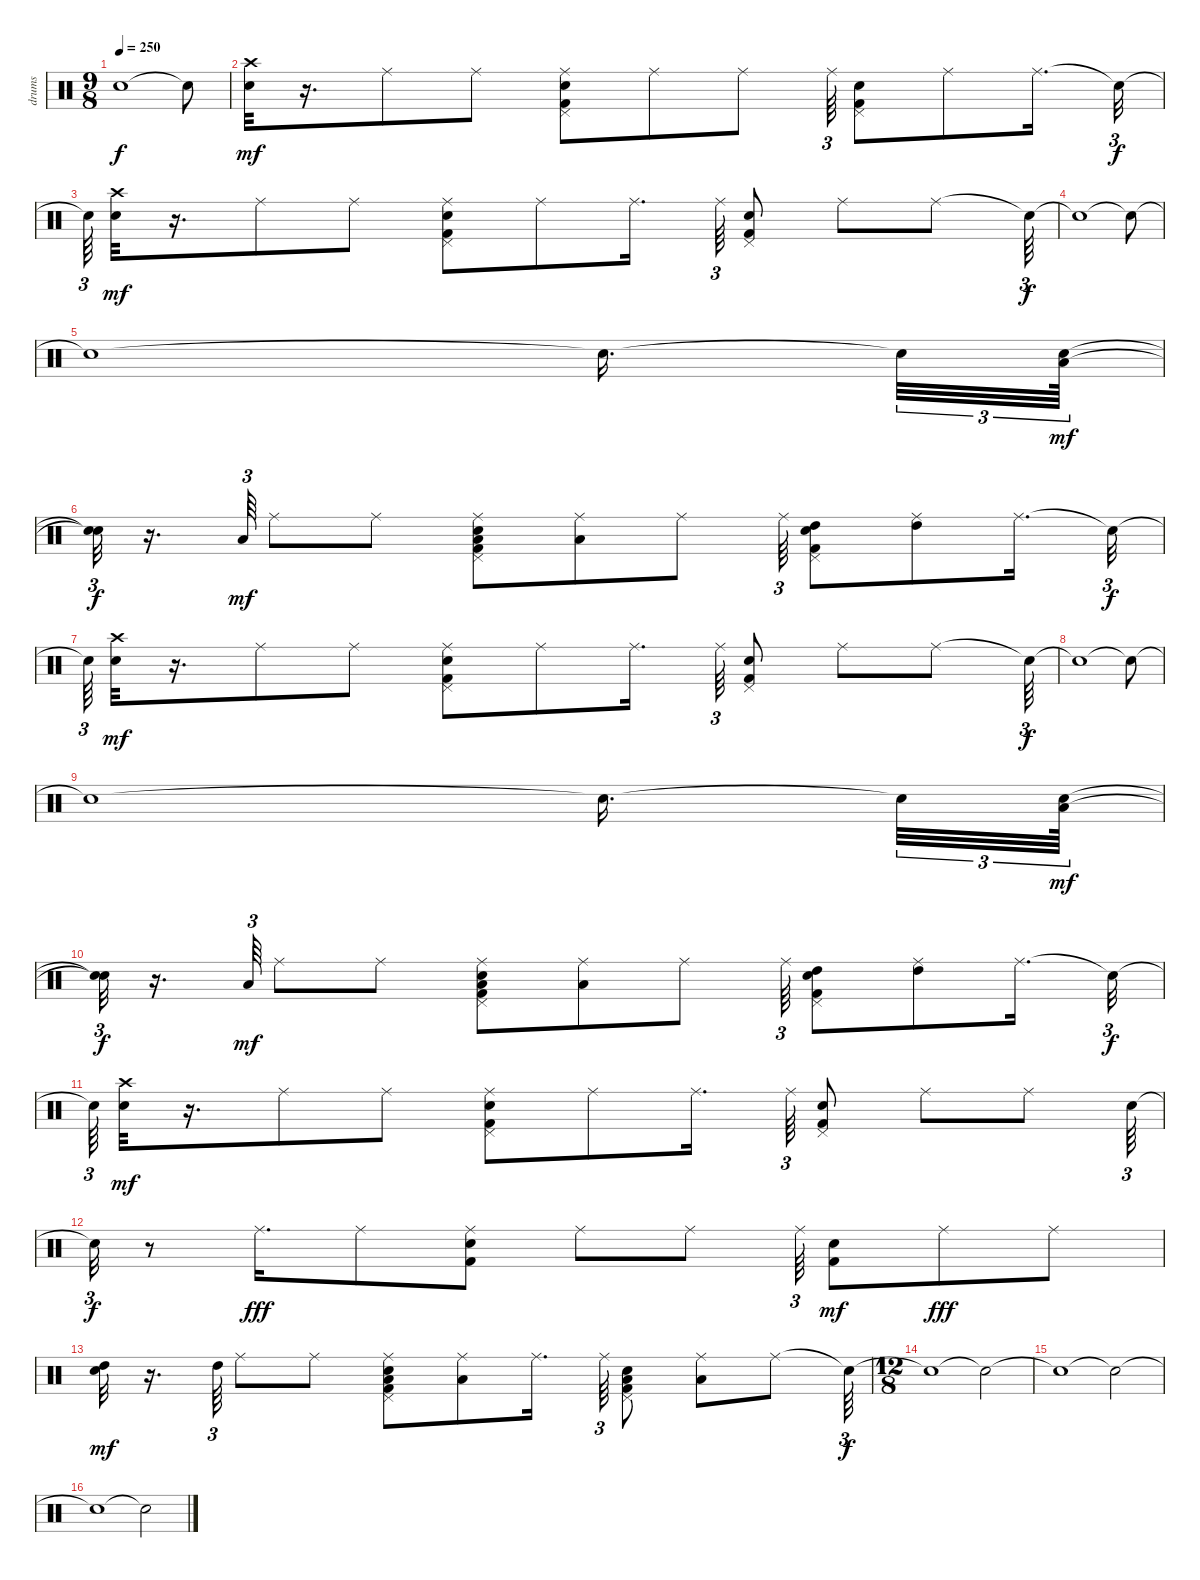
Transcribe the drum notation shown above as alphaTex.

\track ("drums               " "drums     ") {instrument percussion}
\staff {score}
\articulation defaults
\ts (9 8)
\tempo 250
\clef neutral
\ks c "Snare (hit)"{t}.1{dy f} "Snare (hit)"{t}.8
|
("Snare (hit) 2" "Crash high (hit)").32{dy mf} r.16{d} "Ride (middle)".8 "Ride (middle)".8 ("Pedal Hi-Hat (hit)" "Snare (hit) 2" "Kick (hit) 2" "Ride (middle)").8 "Ride (middle)".8 "Ride (middle)".8 "Ride (middle)".64{tu (3 2)} ("Snare (hit) 2" "Kick (hit) 2" "Pedal Hi-Hat (hit)").8 "Ride (middle)".8 "Ride (middle)".16{d} "Snare (hit)"{t}.32{tu (3 2) dy f} |
"Snare (hit)"{t}.64{tu (3 2)} ("Snare (hit) 2" "Crash high (hit)").32{dy mf} r.16{d} "Ride (middle)".8 "Ride (middle)".8 ("Pedal Hi-Hat (hit)" "Snare (hit) 2" "Kick (hit) 2" "Ride (middle)").8 "Ride (middle)".8 "Ride (middle)".16{d} "Ride (middle)".64{tu (3 2)} ("Snare (hit) 2" "Kick (hit) 2" "Pedal Hi-Hat (hit)").8 "Ride (middle)".8 "Ride (middle)".8 "Snare (hit)"{t}.64{tu (3 2) dy f} |
"Snare (hit)"{t}.1 "Snare (hit)"{t}.8 |
"Snare (hit)"{t}.1 "Snare (hit)"{t}.16{d} "Snare (hit)"{t}.32{tu (3 2)} ("Snare (hit) 2" "Low Floor Tom (hit)").64{tu (3 2) dy mf} |
("Snare (hit)"{t} "Snare (hit)"{t}).32{tu (3 2) dy f} r.16{d} "Low Floor Tom (hit)".64{tu (3 2) dy mf} "Ride (middle)".8 "Ride (middle)".8 ("Pedal Hi-Hat (hit)" "Snare (hit) 2" "Kick (hit) 2" "Low Tom (hit)" "Ride (middle)").8 ("Low Tom (hit)" "Ride (middle)").8 "Ride (middle)".8 "Ride (middle)".64{tu (3 2)} ("Snare (hit) 2" "Kick (hit) 2" "Pedal Hi-Hat (hit)" "High Tom (hit)").8 ("High Tom (hit)" "Ride (middle)").8 "Ride (middle)".16{d} "Snare (hit)"{t}.32{tu (3 2) dy f} |
"Snare (hit)"{t}.64{tu (3 2)} ("Snare (hit) 2" "Crash high (hit)").32{dy mf} r.16{d} "Ride (middle)".8 "Ride (middle)".8 ("Pedal Hi-Hat (hit)" "Snare (hit) 2" "Kick (hit) 2" "Ride (middle)").8 "Ride (middle)".8 "Ride (middle)".16{d} "Ride (middle)".64{tu (3 2)} ("Snare (hit) 2" "Kick (hit) 2" "Pedal Hi-Hat (hit)").8 "Ride (middle)".8 "Ride (middle)".8 "Snare (hit)"{t}.64{tu (3 2) dy f} |
"Snare (hit)"{t}.1 "Snare (hit)"{t}.8 |
"Snare (hit)"{t}.1 "Snare (hit)"{t}.16{d} "Snare (hit)"{t}.32{tu (3 2)} ("Snare (hit) 2" "Low Floor Tom (hit)").64{tu (3 2) dy mf} |
("Snare (hit)"{t} "Snare (hit)"{t}).32{tu (3 2) dy f} r.16{d} "Low Floor Tom (hit)".64{tu (3 2) dy mf} "Ride (middle)".8 "Ride (middle)".8 ("Pedal Hi-Hat (hit)" "Snare (hit) 2" "Kick (hit) 2" "Low Tom (hit)" "Ride (middle)").8 ("Low Tom (hit)" "Ride (middle)").8 "Ride (middle)".8 "Ride (middle)".64{tu (3 2)} ("Snare (hit) 2" "Kick (hit) 2" "Pedal Hi-Hat (hit)" "High Tom (hit)").8 ("High Tom (hit)" "Ride (middle)").8 "Ride (middle)".16{d} "Snare (hit)"{t}.32{tu (3 2) dy f} |
"Snare (hit)"{t}.64{tu (3 2)} ("Snare (hit) 2" "Crash high (hit)").32{dy mf} r.16{d} "Ride (middle)".8 "Ride (middle)".8 ("Pedal Hi-Hat (hit)" "Snare (hit) 2" "Kick (hit) 2" "Ride (middle)").8 "Ride (middle)".8 "Ride (middle)".16{d} "Ride (middle)".64{tu (3 2)} ("Snare (hit) 2" "Kick (hit) 2" "Pedal Hi-Hat (hit)").8 "Ride (middle)".8 "Ride (middle)".8 "Snare (hit) 2".64{tu (3 2)} |
"Snare (hit)"{t}.32{tu (3 2) dy f} r.8 "Ride (middle)".16{d dy fff} "Ride (middle)".8 ("Snare (hit) 2" "Kick (hit) 2" "Ride (middle)").8 "Ride (middle)".8 "Ride (middle)".8 "Ride (middle)".64{tu (3 2)} ("Kick (hit) 2" "Snare (hit) 2").8{dy mf} "Ride (middle)".8{dy fff} "Ride (middle)".8 |
("Snare (hit) 2" "High Tom (hit)").32{dy mf} r.16{d} "High Tom (hit)".64{tu (3 2)} "Ride (middle)".8 "Ride (middle)".8 ("Pedal Hi-Hat (hit)" "Snare (hit) 2" "Kick (hit) 2" "Low Tom (hit)" "Ride (middle)").8 ("Low Tom (hit)" "Ride (middle)").8 "Ride (middle)".16{d} "Ride (middle)".64{tu (3 2)} ("Snare (hit) 2" "Kick (hit) 2" "Low Floor Tom (hit)" "Pedal Hi-Hat (hit)").8 ("Low Floor Tom (hit)" "Ride (middle)").8 "Ride (middle)".8 "Snare (hit)"{t}.64{tu (3 2) dy f} |
\ts (12 8)
"Snare (hit)"{t}.1 "Snare (hit)"{t}.2 |
"Snare (hit)"{t}.1 "Snare (hit)"{t}.2 |
"Snare (hit)"{t}.1 "Snare (hit)"{t}.2
